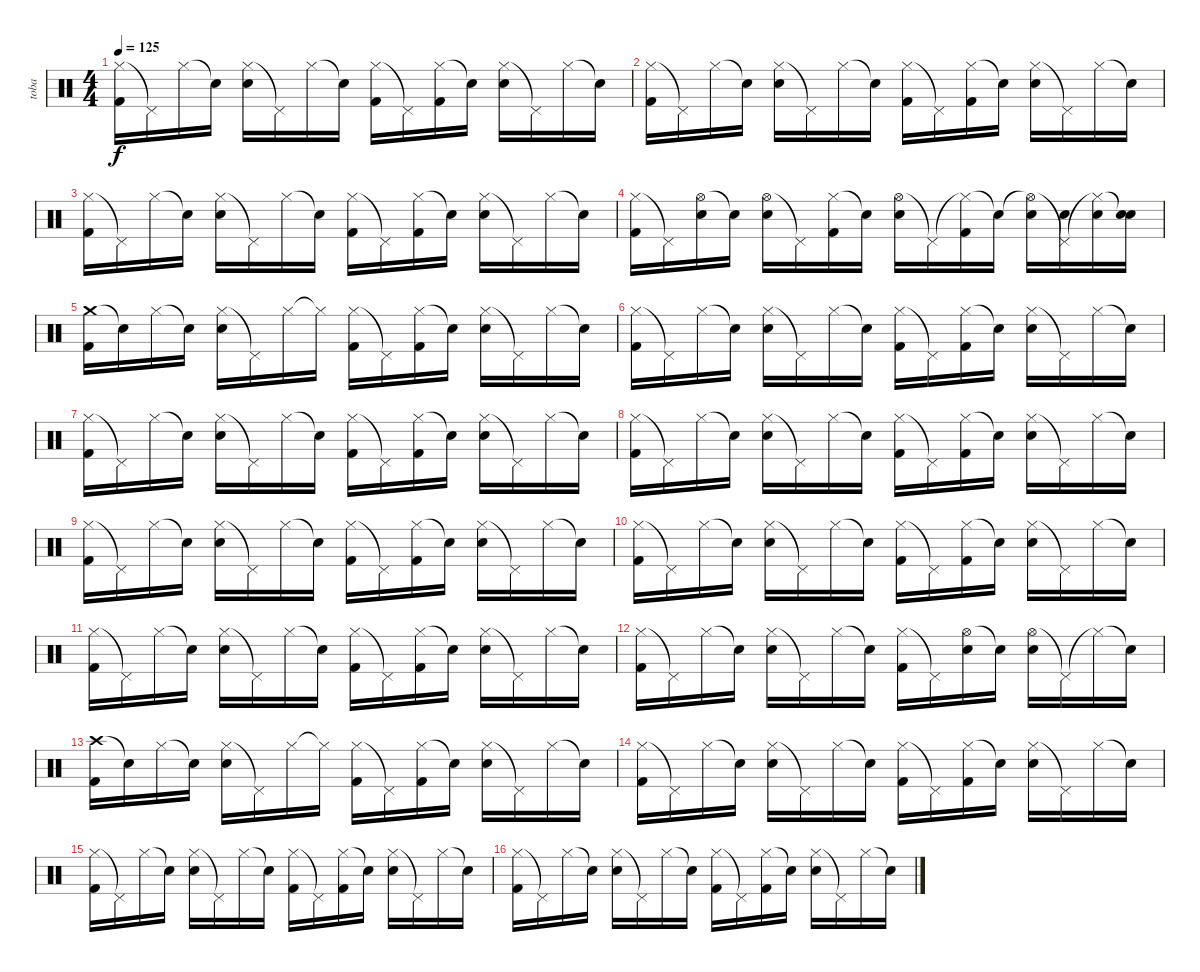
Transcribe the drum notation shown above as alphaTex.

\track ("toba" "toba") {instrument percussion}
\staff {score}
\articulation defaults
\ts (4 4)
\tempo 125
\clef neutral
\ks c
("Hi-Hat (closed)" "Kick (hit) 2").16{dy f} "Pedal Hi-Hat (hit)"{t}.16 "Hi-Hat (closed)".16 "Snare (hit)"{t}.16 ("Hi-Hat (closed)" "Electric Snare (hit)").16 "Pedal Hi-Hat (hit)"{t}.16 "Hi-Hat (closed)".16 "Snare (hit)"{t}.16 ("Hi-Hat (closed)" "Kick (hit) 2").16 "Pedal Hi-Hat (hit)"{t}.16 ("Hi-Hat (closed)" "Kick (hit) 2").16 "Snare (hit)"{t}.16 ("Hi-Hat (closed)" "Electric Snare (hit)").16 "Pedal Hi-Hat (hit)"{t}.16 "Hi-Hat (closed)".16 "Snare (hit)"{t}.16 |
("Hi-Hat (closed)" "Kick (hit) 2").16 "Pedal Hi-Hat (hit)"{t}.16 "Hi-Hat (closed)".16 "Snare (hit)"{t}.16 ("Hi-Hat (closed)" "Electric Snare (hit)").16 "Pedal Hi-Hat (hit)"{t}.16 "Hi-Hat (closed)".16 "Snare (hit)"{t}.16 ("Hi-Hat (closed)" "Kick (hit) 2").16 "Pedal Hi-Hat (hit)"{t}.16 ("Hi-Hat (closed)" "Kick (hit) 2").16 "Snare (hit)"{t}.16 ("Hi-Hat (closed)" "Electric Snare (hit)").16 "Pedal Hi-Hat (hit)"{t}.16 "Hi-Hat (closed)".16 "Snare (hit)"{t}.16 |
("Hi-Hat (closed)" "Kick (hit) 2").16 "Pedal Hi-Hat (hit)"{t}.16 "Hi-Hat (closed)".16 "Snare (hit)"{t}.16 ("Hi-Hat (closed)" "Electric Snare (hit)").16 "Pedal Hi-Hat (hit)"{t}.16 "Hi-Hat (closed)".16 "Snare (hit)"{t}.16 ("Hi-Hat (closed)" "Kick (hit) 2").16 "Pedal Hi-Hat (hit)"{t}.16 ("Hi-Hat (closed)" "Kick (hit) 2").16 "Snare (hit)"{t}.16 ("Hi-Hat (closed)" "Electric Snare (hit)").16 "Pedal Hi-Hat (hit)"{t}.16 "Hi-Hat (closed)".16 "Snare (hit)"{t}.16 |
("Hi-Hat (closed)" "Kick (hit) 2").16 "Pedal Hi-Hat (hit)"{t}.16 ("Hi-Hat (open)" "Electric Snare (hit)").16 "Snare (hit)"{t}.16 ("Hi-Hat (open)" "Electric Snare (hit)").16 "Pedal Hi-Hat (hit)"{t}.16 ("Hi-Hat (closed)" "Kick (hit) 2").16 "Snare (hit)"{t}.16 ("Hi-Hat (open)" "Electric Snare (hit)").16 "Pedal Hi-Hat (hit)"{t}.16 ("Hi-Hat (closed)"{t} "Kick (hit) 2").16 "Snare (hit)"{t}.16 ("Hi-Hat (open)"{t} "Electric Snare (hit)").16 ("Pedal Hi-Hat (hit)"{t} "Electric Snare (hit)").16 ("Hi-Hat (closed)"{t} "Electric Snare (hit)").16 ("Snare (hit)"{t} "Electric Snare (hit)").16 |
("Crash medium (hit)" "Kick (hit) 2").16 "Snare (hit)"{t}.16 "Hi-Hat (closed)".16 "Snare (hit)"{t}.16 ("Hi-Hat (closed)" "Electric Snare (hit)").16 "Pedal Hi-Hat (hit)"{t}.16 "Hi-Hat (closed)".16 "Hi-Hat (closed)"{t}.16 ("Hi-Hat (closed)" "Kick (hit) 2").16 "Pedal Hi-Hat (hit)"{t}.16 ("Hi-Hat (closed)" "Kick (hit) 2").16 "Snare (hit)"{t}.16 ("Hi-Hat (closed)" "Electric Snare (hit)").16 "Pedal Hi-Hat (hit)"{t}.16 "Hi-Hat (closed)".16 "Snare (hit)"{t}.16 |
("Hi-Hat (closed)" "Kick (hit) 2").16 "Pedal Hi-Hat (hit)"{t}.16 "Hi-Hat (closed)".16 "Snare (hit)"{t}.16 ("Hi-Hat (closed)" "Electric Snare (hit)").16 "Pedal Hi-Hat (hit)"{t}.16 "Hi-Hat (closed)".16 "Snare (hit)"{t}.16 ("Hi-Hat (closed)" "Kick (hit) 2").16 "Pedal Hi-Hat (hit)"{t}.16 ("Hi-Hat (closed)" "Kick (hit) 2").16 "Snare (hit)"{t}.16 ("Hi-Hat (closed)" "Electric Snare (hit)").16 "Pedal Hi-Hat (hit)"{t}.16 "Hi-Hat (closed)".16 "Snare (hit)"{t}.16 |
("Hi-Hat (closed)" "Kick (hit) 2").16 "Pedal Hi-Hat (hit)"{t}.16 "Hi-Hat (closed)".16 "Snare (hit)"{t}.16 ("Hi-Hat (closed)" "Electric Snare (hit)").16 "Pedal Hi-Hat (hit)"{t}.16 "Hi-Hat (closed)".16 "Snare (hit)"{t}.16 ("Hi-Hat (closed)" "Kick (hit) 2").16 "Pedal Hi-Hat (hit)"{t}.16 ("Hi-Hat (closed)" "Kick (hit) 2").16 "Snare (hit)"{t}.16 ("Hi-Hat (closed)" "Electric Snare (hit)").16 "Pedal Hi-Hat (hit)"{t}.16 "Hi-Hat (closed)".16 "Snare (hit)"{t}.16 |
("Hi-Hat (closed)" "Kick (hit) 2").16 "Pedal Hi-Hat (hit)"{t}.16 "Hi-Hat (closed)".16 "Snare (hit)"{t}.16 ("Hi-Hat (closed)" "Electric Snare (hit)").16 "Pedal Hi-Hat (hit)"{t}.16 "Hi-Hat (closed)".16 "Snare (hit)"{t}.16 ("Hi-Hat (closed)" "Kick (hit) 2").16 "Pedal Hi-Hat (hit)"{t}.16 ("Hi-Hat (closed)" "Kick (hit) 2").16 "Snare (hit)"{t}.16 ("Hi-Hat (closed)" "Electric Snare (hit)").16 "Pedal Hi-Hat (hit)"{t}.16 "Hi-Hat (closed)".16 "Snare (hit)"{t}.16 |
("Hi-Hat (closed)" "Kick (hit) 2").16 "Pedal Hi-Hat (hit)"{t}.16 "Hi-Hat (closed)".16 "Snare (hit)"{t}.16 ("Hi-Hat (closed)" "Electric Snare (hit)").16 "Pedal Hi-Hat (hit)"{t}.16 "Hi-Hat (closed)".16 "Snare (hit)"{t}.16 ("Hi-Hat (closed)" "Kick (hit) 2").16 "Pedal Hi-Hat (hit)"{t}.16 ("Hi-Hat (closed)" "Kick (hit) 2").16 "Snare (hit)"{t}.16 ("Hi-Hat (closed)" "Electric Snare (hit)").16 "Pedal Hi-Hat (hit)"{t}.16 "Hi-Hat (closed)".16 "Snare (hit)"{t}.16 |
("Hi-Hat (closed)" "Kick (hit) 2").16 "Pedal Hi-Hat (hit)"{t}.16 "Hi-Hat (closed)".16 "Snare (hit)"{t}.16 ("Hi-Hat (closed)" "Electric Snare (hit)").16 "Pedal Hi-Hat (hit)"{t}.16 "Hi-Hat (closed)".16 "Snare (hit)"{t}.16 ("Hi-Hat (closed)" "Kick (hit) 2").16 "Pedal Hi-Hat (hit)"{t}.16 ("Hi-Hat (closed)" "Kick (hit) 2").16 "Snare (hit)"{t}.16 ("Hi-Hat (closed)" "Electric Snare (hit)").16 "Pedal Hi-Hat (hit)"{t}.16 "Hi-Hat (closed)".16 "Snare (hit)"{t}.16 |
("Hi-Hat (closed)" "Kick (hit) 2").16 "Pedal Hi-Hat (hit)"{t}.16 "Hi-Hat (closed)".16 "Snare (hit)"{t}.16 ("Hi-Hat (closed)" "Electric Snare (hit)").16 "Pedal Hi-Hat (hit)"{t}.16 "Hi-Hat (closed)".16 "Snare (hit)"{t}.16 ("Hi-Hat (closed)" "Kick (hit) 2").16 "Pedal Hi-Hat (hit)"{t}.16 ("Hi-Hat (closed)" "Kick (hit) 2").16 "Snare (hit)"{t}.16 ("Hi-Hat (closed)" "Electric Snare (hit)").16 "Pedal Hi-Hat (hit)"{t}.16 "Hi-Hat (closed)".16 "Snare (hit)"{t}.16 |
("Hi-Hat (closed)" "Kick (hit) 2").16 "Pedal Hi-Hat (hit)"{t}.16 "Hi-Hat (closed)".16 "Snare (hit)"{t}.16 ("Hi-Hat (closed)" "Electric Snare (hit)").16 "Pedal Hi-Hat (hit)"{t}.16 "Hi-Hat (closed)".16 "Snare (hit)"{t}.16 ("Hi-Hat (closed)" "Kick (hit) 2").16 "Pedal Hi-Hat (hit)"{t}.16 ("Hi-Hat (open)" "Electric Snare (hit)").16 "Snare (hit)"{t}.16 ("Hi-Hat (open)" "Electric Snare (hit)").16 "Pedal Hi-Hat (hit)"{t}.16 "Hi-Hat (closed)"{t}.16 "Snare (hit)"{t}.16 |
("Crash high (hit)" "Kick (hit) 2").16 "Snare (hit)"{t}.16 "Hi-Hat (closed)".16 "Snare (hit)"{t}.16 ("Hi-Hat (closed)" "Electric Snare (hit)").16 "Pedal Hi-Hat (hit)"{t}.16 "Hi-Hat (closed)".16 "Hi-Hat (closed)"{t}.16 ("Hi-Hat (closed)" "Kick (hit) 2").16 "Pedal Hi-Hat (hit)"{t}.16 ("Hi-Hat (closed)" "Kick (hit) 2").16 "Snare (hit)"{t}.16 ("Hi-Hat (closed)" "Electric Snare (hit)").16 "Pedal Hi-Hat (hit)"{t}.16 "Hi-Hat (closed)".16 "Snare (hit)"{t}.16 |
("Hi-Hat (closed)" "Kick (hit) 2").16 "Pedal Hi-Hat (hit)"{t}.16 "Hi-Hat (closed)".16 "Snare (hit)"{t}.16 ("Hi-Hat (closed)" "Electric Snare (hit)").16 "Pedal Hi-Hat (hit)"{t}.16 "Hi-Hat (closed)".16 "Snare (hit)"{t}.16 ("Hi-Hat (closed)" "Kick (hit) 2").16 "Pedal Hi-Hat (hit)"{t}.16 ("Hi-Hat (closed)" "Kick (hit) 2").16 "Snare (hit)"{t}.16 ("Hi-Hat (closed)" "Electric Snare (hit)").16 "Pedal Hi-Hat (hit)"{t}.16 "Hi-Hat (closed)".16 "Snare (hit)"{t}.16 |
("Hi-Hat (closed)" "Kick (hit) 2").16 "Pedal Hi-Hat (hit)"{t}.16 "Hi-Hat (closed)".16 "Snare (hit)"{t}.16 ("Hi-Hat (closed)" "Electric Snare (hit)").16 "Pedal Hi-Hat (hit)"{t}.16 "Hi-Hat (closed)".16 "Snare (hit)"{t}.16 ("Hi-Hat (closed)" "Kick (hit) 2").16 "Pedal Hi-Hat (hit)"{t}.16 ("Hi-Hat (closed)" "Kick (hit) 2").16 "Snare (hit)"{t}.16 ("Hi-Hat (closed)" "Electric Snare (hit)").16 "Pedal Hi-Hat (hit)"{t}.16 "Hi-Hat (closed)".16 "Snare (hit)"{t}.16 |
("Hi-Hat (closed)" "Kick (hit) 2").16 "Pedal Hi-Hat (hit)"{t}.16 "Hi-Hat (closed)".16 "Snare (hit)"{t}.16 ("Hi-Hat (closed)" "Electric Snare (hit)").16 "Pedal Hi-Hat (hit)"{t}.16 "Hi-Hat (closed)".16 "Snare (hit)"{t}.16 ("Hi-Hat (closed)" "Kick (hit) 2").16 "Pedal Hi-Hat (hit)"{t}.16 ("Hi-Hat (closed)" "Kick (hit) 2").16 "Snare (hit)"{t}.16 ("Hi-Hat (closed)" "Electric Snare (hit)").16 "Pedal Hi-Hat (hit)"{t}.16 "Hi-Hat (closed)".16 "Snare (hit)"{t}.16
